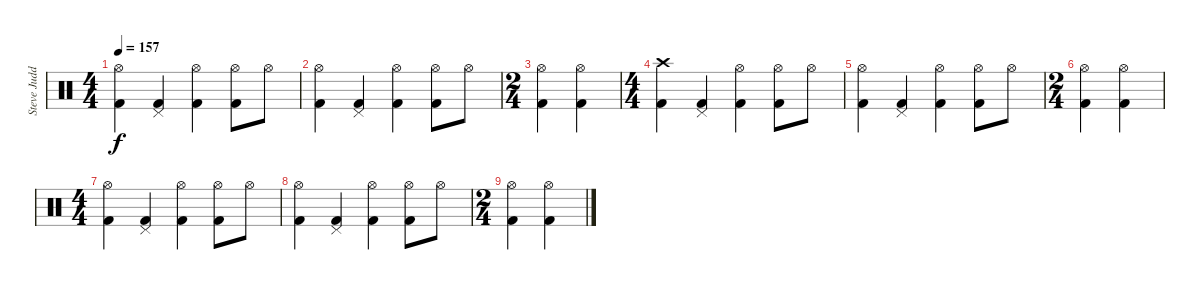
\track ("Steve Judd" "Steve Judd") {instrument percussion}
\staff {score}
\articulation defaults
\ts (4 4)
\tempo 157
\clef neutral
\ks c
("Hi-Hat (open)" "Kick (hit) 2").4{dy f} ("Pedal Hi-Hat (hit)" "Kick (hit) 2").4 ("Hi-Hat (open)" "Kick (hit) 2").4 ("Hi-Hat (open)" "Kick (hit) 2").8 "Hi-Hat (open)".8 |
("Hi-Hat (open)" "Kick (hit) 2").4 ("Pedal Hi-Hat (hit)" "Kick (hit) 2").4 ("Hi-Hat (open)" "Kick (hit) 2").4 ("Hi-Hat (open)" "Kick (hit) 2").8 "Hi-Hat (open)".8 |
\ts (2 4)
("Hi-Hat (open)" "Kick (hit) 2").4 ("Hi-Hat (open)" "Kick (hit) 2").4 |
\ts (4 4)
("Crash high (hit)" "Kick (hit) 2").4 ("Pedal Hi-Hat (hit)" "Kick (hit) 2").4 ("Hi-Hat (open)" "Kick (hit) 2").4 ("Hi-Hat (open)" "Kick (hit) 2").8 "Hi-Hat (open)".8 |
("Hi-Hat (open)" "Kick (hit) 2").4 ("Pedal Hi-Hat (hit)" "Kick (hit) 2").4 ("Hi-Hat (open)" "Kick (hit) 2").4 ("Hi-Hat (open)" "Kick (hit) 2").8 "Hi-Hat (open)".8 |
\ts (2 4)
("Hi-Hat (open)" "Kick (hit) 2").4 ("Hi-Hat (open)" "Kick (hit) 2").4 |
\ts (4 4)
("Hi-Hat (open)" "Kick (hit) 2").4 ("Pedal Hi-Hat (hit)" "Kick (hit) 2").4 ("Hi-Hat (open)" "Kick (hit) 2").4 ("Hi-Hat (open)" "Kick (hit) 2").8 "Hi-Hat (open)".8 |
("Hi-Hat (open)" "Kick (hit) 2").4 ("Pedal Hi-Hat (hit)" "Kick (hit) 2").4 ("Hi-Hat (open)" "Kick (hit) 2").4 ("Hi-Hat (open)" "Kick (hit) 2").8 "Hi-Hat (open)".8 |
\ts (2 4)
("Hi-Hat (open)" "Kick (hit) 2").4 ("Hi-Hat (open)" "Kick (hit) 2").4
